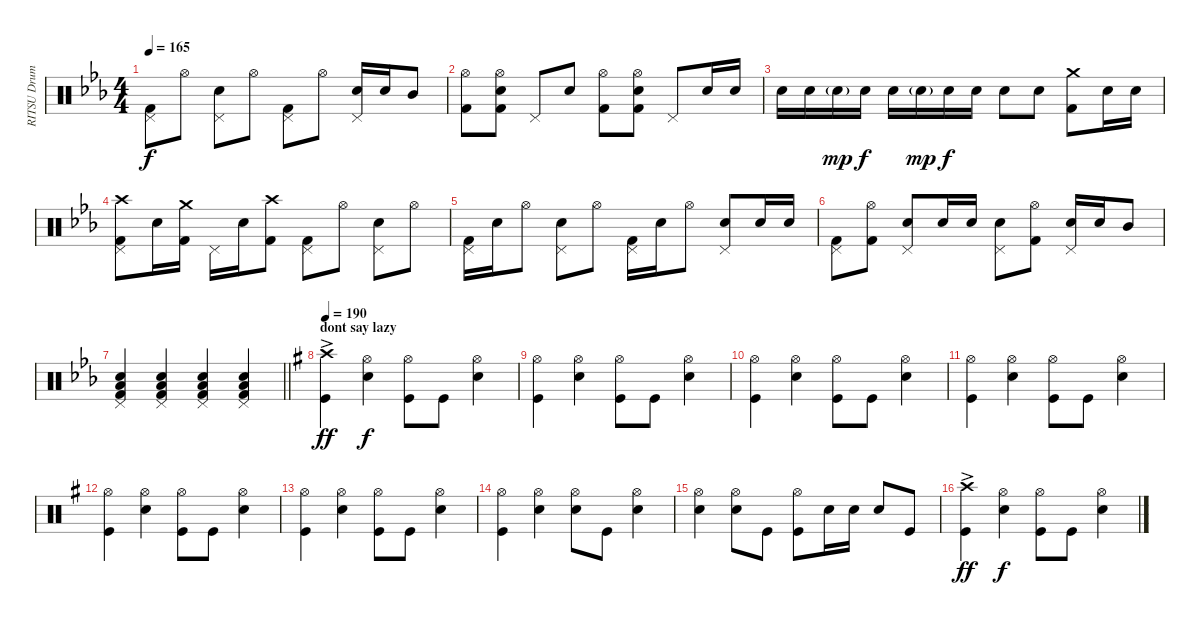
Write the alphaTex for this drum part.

\track ("RITSU Drums" "RITSU Drum") {instrument percussion}
\staff {score}
\articulation defaults
\ts (4 4)
\tempo 165
\clef neutral
\ks eb
("Pedal Hi-Hat (hit)" "Kick (hit) 2").8{dy f} "Hi-Hat (open)".8 ("Pedal Hi-Hat (hit)" "Electric Snare (hit)").8 "Hi-Hat (open)".8 ("Pedal Hi-Hat (hit)" "Kick (hit) 2").8 "Hi-Hat (open)".8 ("Pedal Hi-Hat (hit)" "Electric Snare (hit)").16 "Electric Snare (hit)".16 "Mid Tom (hit)".8 |
("Hi-Hat (open)" "Kick (hit) 2").8 ("Hi-Hat (open)" "Electric Snare (hit)" "Kick (hit) 2").8 "Pedal Hi-Hat (hit)".8 "Electric Snare (hit)".8 ("Hi-Hat (open)" "Kick (hit) 2").8 ("Hi-Hat (open)" "Electric Snare (hit)" "Kick (hit) 2").8 "Pedal Hi-Hat (hit)".8 "Electric Snare (hit)".16 "Electric Snare (hit)".16 |
"Electric Snare (hit)".16 "Electric Snare (hit)".16 "Electric Snare (hit)"{g}.16{dy mp} "Electric Snare (hit)".16{dy f} "Electric Snare (hit)".16 "Electric Snare (hit)"{g}.16{dy mp} "Electric Snare (hit)".16{dy f} "Electric Snare (hit)".16 "Electric Snare (hit)".8 "Electric Snare (hit)".8 ("Crash medium (hit)" "Kick (hit) 2").8 "Electric Snare (hit)".16 "Electric Snare (hit)".16 |
("Crash high (hit)" "Pedal Hi-Hat (hit)" "Kick (hit) 2").8 "Electric Snare (hit)".16 ("Crash medium (hit)" "Kick (hit) 2").16 "Pedal Hi-Hat (hit)".16 "Electric Snare (hit)".16 ("Crash high (hit)" "Kick (hit) 2").8 ("Pedal Hi-Hat (hit)" "Kick (hit) 2").8 "Hi-Hat (open)".8 ("Pedal Hi-Hat (hit)" "Electric Snare (hit)").8 "Hi-Hat (open)".8 |
("Pedal Hi-Hat (hit)" "Kick (hit) 2").16 "Electric Snare (hit)".16 "Hi-Hat (open)".8 ("Pedal Hi-Hat (hit)" "Electric Snare (hit)").8 "Hi-Hat (open)".8 ("Pedal Hi-Hat (hit)" "Kick (hit) 2").16 "Electric Snare (hit)".16 "Hi-Hat (open)".8 ("Pedal Hi-Hat (hit)" "Electric Snare (hit)").8 "Electric Snare (hit)".16 "Electric Snare (hit)".16 |
("Pedal Hi-Hat (hit)" "Kick (hit) 2").8 ("Hi-Hat (open)" "Kick (hit) 2").8 ("Pedal Hi-Hat (hit)" "Electric Snare (hit)").8 "Electric Snare (hit)".16 "Electric Snare (hit)".16 ("Pedal Hi-Hat (hit)" "Electric Snare (hit)").8 ("Hi-Hat (open)" "Kick (hit) 2").8 ("Pedal Hi-Hat (hit)" "Electric Snare (hit)").16 "Electric Snare (hit)".16 "Mid Tom (hit)".8 |
\barLineRight lightlight
("Pedal Hi-Hat (hit)" "Electric Snare (hit)" "Low Floor Tom (hit)" "Kick (hit) 2").4 ("Pedal Hi-Hat (hit)" "Electric Snare (hit)" "Low Floor Tom (hit)" "Kick (hit) 2").4 ("Pedal Hi-Hat (hit)" "Electric Snare (hit)" "Low Floor Tom (hit)" "Kick (hit) 2").4 ("Pedal Hi-Hat (hit)" "Electric Snare (hit)" "Low Floor Tom (hit)" "Kick (hit) 2").4 |
\section ("" "dont say lazy")
\tempo 190
\ks g
("Kick (hit)" "Crash high (hit)"{ac}).4{dy ff} ("Hi-Hat (open)" "Snare (hit) 2").4{dy f} ("Kick (hit)" "Hi-Hat (open)").8 "Kick (hit)".8 ("Snare (hit) 2" "Hi-Hat (open)").4 |
("Kick (hit)" "Hi-Hat (open)").4 ("Hi-Hat (open)" "Snare (hit) 2").4 ("Kick (hit)" "Hi-Hat (open)").8 "Kick (hit)".8 ("Snare (hit) 2" "Hi-Hat (open)").4 |
("Kick (hit)" "Hi-Hat (open)").4 ("Hi-Hat (open)" "Snare (hit) 2").4 ("Kick (hit)" "Hi-Hat (open)").8 "Kick (hit)".8 ("Snare (hit) 2" "Hi-Hat (open)").4 |
("Kick (hit)" "Hi-Hat (open)").4 ("Hi-Hat (open)" "Snare (hit) 2").4 ("Kick (hit)" "Hi-Hat (open)").8 "Kick (hit)".8 ("Snare (hit) 2" "Hi-Hat (open)").4 |
("Kick (hit)" "Hi-Hat (open)").4 ("Hi-Hat (open)" "Snare (hit) 2").4 ("Kick (hit)" "Hi-Hat (open)").8 "Kick (hit)".8 ("Snare (hit) 2" "Hi-Hat (open)").4 |
("Kick (hit)" "Hi-Hat (open)").4 ("Hi-Hat (open)" "Snare (hit) 2").4 ("Kick (hit)" "Hi-Hat (open)").8 "Kick (hit)".8 ("Snare (hit) 2" "Hi-Hat (open)").4 |
("Kick (hit)" "Hi-Hat (open)").4 ("Hi-Hat (open)" "Snare (hit) 2").4 ("Snare (hit) 2" "Hi-Hat (open)").8 "Kick (hit)".8 ("Snare (hit) 2" "Hi-Hat (open)").4 |
("Snare (hit) 2" "Hi-Hat (open)").4 ("Snare (hit) 2" "Hi-Hat (open)").8 "Kick (hit)".8 ("Kick (hit)" "Hi-Hat (open)").8 "Snare (hit) 2".16 "Snare (hit) 2".16 "Snare (hit) 2".8 "Kick (hit)".8 |
("Kick (hit)" "Crash high (hit)"{ac}).4{dy ff} ("Hi-Hat (open)" "Snare (hit) 2").4{dy f} ("Kick (hit)" "Hi-Hat (open)").8 "Kick (hit)".8 ("Snare (hit) 2" "Hi-Hat (open)").4
